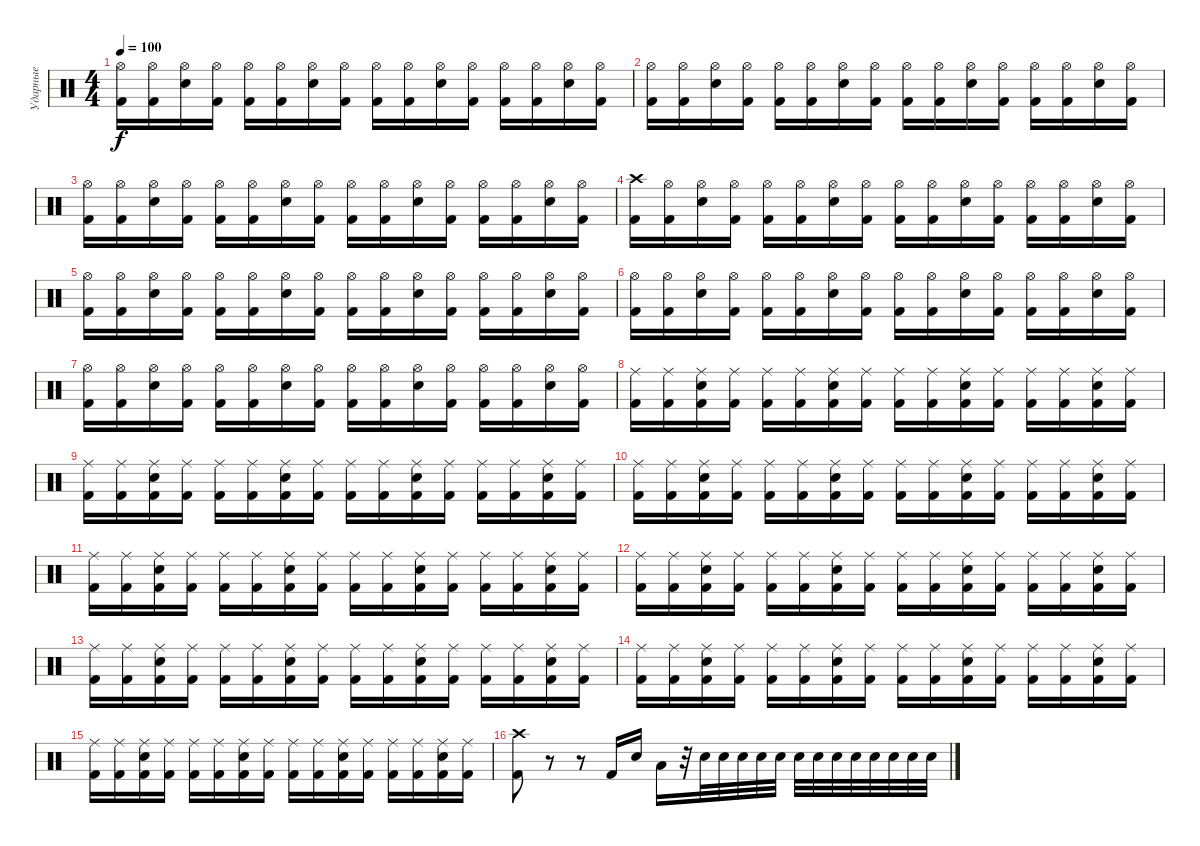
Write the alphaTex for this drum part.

\track ("Ударные" "Ударные") {instrument percussion}
\staff {score}
\articulation defaults
\ts (4 4)
\tempo 100
\clef neutral
\ks c
("Kick (hit) 2" "Hi-Hat (open)").16{dy f} ("Kick (hit) 2" "Hi-Hat (open)").16 ("Electric Snare (hit)" "Hi-Hat (open)").16 ("Kick (hit) 2" "Hi-Hat (open)").16 ("Kick (hit) 2" "Hi-Hat (open)").16 ("Kick (hit) 2" "Hi-Hat (open)").16 ("Electric Snare (hit)" "Hi-Hat (open)").16 ("Kick (hit) 2" "Hi-Hat (open)").16 ("Kick (hit) 2" "Hi-Hat (open)").16 ("Kick (hit) 2" "Hi-Hat (open)").16 ("Electric Snare (hit)" "Hi-Hat (open)").16 ("Kick (hit) 2" "Hi-Hat (open)").16 ("Kick (hit) 2" "Hi-Hat (open)").16 ("Kick (hit) 2" "Hi-Hat (open)").16 ("Electric Snare (hit)" "Hi-Hat (open)").16 ("Kick (hit) 2" "Hi-Hat (open)").16 |
("Kick (hit) 2" "Hi-Hat (open)").16 ("Kick (hit) 2" "Hi-Hat (open)").16 ("Electric Snare (hit)" "Hi-Hat (open)").16 ("Kick (hit) 2" "Hi-Hat (open)").16 ("Kick (hit) 2" "Hi-Hat (open)").16 ("Kick (hit) 2" "Hi-Hat (open)").16 ("Electric Snare (hit)" "Hi-Hat (open)").16 ("Kick (hit) 2" "Hi-Hat (open)").16 ("Kick (hit) 2" "Hi-Hat (open)").16 ("Kick (hit) 2" "Hi-Hat (open)").16 ("Electric Snare (hit)" "Hi-Hat (open)").16 ("Kick (hit) 2" "Hi-Hat (open)").16 ("Kick (hit) 2" "Hi-Hat (open)").16 ("Kick (hit) 2" "Hi-Hat (open)").16 ("Electric Snare (hit)" "Hi-Hat (open)").16 ("Kick (hit) 2" "Hi-Hat (open)").16 |
("Kick (hit) 2" "Hi-Hat (open)").16 ("Kick (hit) 2" "Hi-Hat (open)").16 ("Electric Snare (hit)" "Hi-Hat (open)").16 ("Kick (hit) 2" "Hi-Hat (open)").16 ("Kick (hit) 2" "Hi-Hat (open)").16 ("Kick (hit) 2" "Hi-Hat (open)").16 ("Electric Snare (hit)" "Hi-Hat (open)").16 ("Kick (hit) 2" "Hi-Hat (open)").16 ("Kick (hit) 2" "Hi-Hat (open)").16 ("Kick (hit) 2" "Hi-Hat (open)").16 ("Electric Snare (hit)" "Hi-Hat (open)").16 ("Kick (hit) 2" "Hi-Hat (open)").16 ("Kick (hit) 2" "Hi-Hat (open)").16 ("Kick (hit) 2" "Hi-Hat (open)").16 ("Electric Snare (hit)" "Hi-Hat (open)").16 ("Kick (hit) 2" "Hi-Hat (open)").16 |
("Kick (hit) 2" "Crash high (hit)").16 ("Kick (hit) 2" "Hi-Hat (open)").16 ("Electric Snare (hit)" "Hi-Hat (open)").16 ("Kick (hit) 2" "Hi-Hat (open)").16 ("Kick (hit) 2" "Hi-Hat (open)").16 ("Kick (hit) 2" "Hi-Hat (open)").16 ("Electric Snare (hit)" "Hi-Hat (open)").16 ("Kick (hit) 2" "Hi-Hat (open)").16 ("Kick (hit) 2" "Hi-Hat (open)").16 ("Kick (hit) 2" "Hi-Hat (open)").16 ("Electric Snare (hit)" "Hi-Hat (open)").16 ("Kick (hit) 2" "Hi-Hat (open)").16 ("Kick (hit) 2" "Hi-Hat (open)").16 ("Kick (hit) 2" "Hi-Hat (open)").16 ("Electric Snare (hit)" "Hi-Hat (open)").16 ("Kick (hit) 2" "Hi-Hat (open)").16 |
("Kick (hit) 2" "Hi-Hat (open)").16 ("Kick (hit) 2" "Hi-Hat (open)").16 ("Electric Snare (hit)" "Hi-Hat (open)").16 ("Kick (hit) 2" "Hi-Hat (open)").16 ("Kick (hit) 2" "Hi-Hat (open)").16 ("Kick (hit) 2" "Hi-Hat (open)").16 ("Electric Snare (hit)" "Hi-Hat (open)").16 ("Kick (hit) 2" "Hi-Hat (open)").16 ("Kick (hit) 2" "Hi-Hat (open)").16 ("Kick (hit) 2" "Hi-Hat (open)").16 ("Electric Snare (hit)" "Hi-Hat (open)").16 ("Kick (hit) 2" "Hi-Hat (open)").16 ("Kick (hit) 2" "Hi-Hat (open)").16 ("Kick (hit) 2" "Hi-Hat (open)").16 ("Electric Snare (hit)" "Hi-Hat (open)").16 ("Kick (hit) 2" "Hi-Hat (open)").16 |
("Kick (hit) 2" "Hi-Hat (open)").16 ("Kick (hit) 2" "Hi-Hat (open)").16 ("Electric Snare (hit)" "Hi-Hat (open)").16 ("Kick (hit) 2" "Hi-Hat (open)").16 ("Kick (hit) 2" "Hi-Hat (open)").16 ("Kick (hit) 2" "Hi-Hat (open)").16 ("Electric Snare (hit)" "Hi-Hat (open)").16 ("Kick (hit) 2" "Hi-Hat (open)").16 ("Kick (hit) 2" "Hi-Hat (open)").16 ("Kick (hit) 2" "Hi-Hat (open)").16 ("Electric Snare (hit)" "Hi-Hat (open)").16 ("Kick (hit) 2" "Hi-Hat (open)").16 ("Kick (hit) 2" "Hi-Hat (open)").16 ("Kick (hit) 2" "Hi-Hat (open)").16 ("Electric Snare (hit)" "Hi-Hat (open)").16 ("Kick (hit) 2" "Hi-Hat (open)").16 |
("Kick (hit) 2" "Hi-Hat (open)").16 ("Kick (hit) 2" "Hi-Hat (open)").16 ("Electric Snare (hit)" "Hi-Hat (open)").16 ("Kick (hit) 2" "Hi-Hat (open)").16 ("Kick (hit) 2" "Hi-Hat (open)").16 ("Kick (hit) 2" "Hi-Hat (open)").16 ("Electric Snare (hit)" "Hi-Hat (open)").16 ("Kick (hit) 2" "Hi-Hat (open)").16 ("Kick (hit) 2" "Hi-Hat (open)").16 ("Kick (hit) 2" "Hi-Hat (open)").16 ("Electric Snare (hit)" "Hi-Hat (open)").16 ("Kick (hit) 2" "Hi-Hat (open)").16 ("Kick (hit) 2" "Hi-Hat (open)").16 ("Kick (hit) 2" "Hi-Hat (open)").16 ("Electric Snare (hit)" "Hi-Hat (open)").16 ("Kick (hit) 2" "Hi-Hat (open)").16 |
("Kick (hit) 2" "Ride (middle)").16 ("Kick (hit) 2" "Ride (middle)").16 ("Kick (hit) 2" "Electric Snare (hit)" "Ride (middle)").16 ("Kick (hit) 2" "Ride (middle)").16 ("Kick (hit) 2" "Ride (middle)").16 ("Kick (hit) 2" "Ride (middle)").16 ("Kick (hit) 2" "Electric Snare (hit)" "Ride (middle)").16 ("Kick (hit) 2" "Ride (middle)").16 ("Kick (hit) 2" "Ride (middle)").16 ("Kick (hit) 2" "Ride (middle)").16 ("Kick (hit) 2" "Electric Snare (hit)" "Ride (middle)").16 ("Kick (hit) 2" "Ride (middle)").16 ("Kick (hit) 2" "Ride (middle)").16 ("Kick (hit) 2" "Ride (middle)").16 ("Kick (hit) 2" "Electric Snare (hit)" "Ride (middle)").16 ("Kick (hit) 2" "Ride (middle)").16 |
("Kick (hit) 2" "Ride (middle)").16 ("Kick (hit) 2" "Ride (middle)").16 ("Kick (hit) 2" "Electric Snare (hit)" "Ride (middle)").16 ("Kick (hit) 2" "Ride (middle)").16 ("Kick (hit) 2" "Ride (middle)").16 ("Kick (hit) 2" "Ride (middle)").16 ("Kick (hit) 2" "Electric Snare (hit)" "Ride (middle)").16 ("Kick (hit) 2" "Ride (middle)").16 ("Kick (hit) 2" "Ride (middle)").16 ("Kick (hit) 2" "Ride (middle)").16 ("Kick (hit) 2" "Electric Snare (hit)" "Ride (middle)").16 ("Kick (hit) 2" "Ride (middle)").16 ("Kick (hit) 2" "Ride (middle)").16 ("Kick (hit) 2" "Ride (middle)").16 ("Kick (hit) 2" "Electric Snare (hit)" "Ride (middle)").16 ("Kick (hit) 2" "Ride (middle)").16 |
("Kick (hit) 2" "Ride (middle)").16 ("Kick (hit) 2" "Ride (middle)").16 ("Kick (hit) 2" "Electric Snare (hit)" "Ride (middle)").16 ("Kick (hit) 2" "Ride (middle)").16 ("Kick (hit) 2" "Ride (middle)").16 ("Kick (hit) 2" "Ride (middle)").16 ("Kick (hit) 2" "Electric Snare (hit)" "Ride (middle)").16 ("Kick (hit) 2" "Ride (middle)").16 ("Kick (hit) 2" "Ride (middle)").16 ("Kick (hit) 2" "Ride (middle)").16 ("Kick (hit) 2" "Electric Snare (hit)" "Ride (middle)").16 ("Kick (hit) 2" "Ride (middle)").16 ("Kick (hit) 2" "Ride (middle)").16 ("Kick (hit) 2" "Ride (middle)").16 ("Kick (hit) 2" "Electric Snare (hit)" "Ride (middle)").16 ("Kick (hit) 2" "Ride (middle)").16 |
("Kick (hit) 2" "Ride (middle)").16 ("Kick (hit) 2" "Ride (middle)").16 ("Kick (hit) 2" "Electric Snare (hit)" "Ride (middle)").16 ("Kick (hit) 2" "Ride (middle)").16 ("Kick (hit) 2" "Ride (middle)").16 ("Kick (hit) 2" "Ride (middle)").16 ("Kick (hit) 2" "Electric Snare (hit)" "Ride (middle)").16 ("Kick (hit) 2" "Ride (middle)").16 ("Kick (hit) 2" "Ride (middle)").16 ("Kick (hit) 2" "Ride (middle)").16 ("Kick (hit) 2" "Electric Snare (hit)" "Ride (middle)").16 ("Kick (hit) 2" "Ride (middle)").16 ("Kick (hit) 2" "Ride (middle)").16 ("Kick (hit) 2" "Ride (middle)").16 ("Kick (hit) 2" "Electric Snare (hit)" "Ride (middle)").16 ("Kick (hit) 2" "Ride (middle)").16 |
("Kick (hit) 2" "Ride (middle)").16 ("Kick (hit) 2" "Ride (middle)").16 ("Kick (hit) 2" "Electric Snare (hit)" "Ride (middle)").16 ("Kick (hit) 2" "Ride (middle)").16 ("Kick (hit) 2" "Ride (middle)").16 ("Kick (hit) 2" "Ride (middle)").16 ("Kick (hit) 2" "Electric Snare (hit)" "Ride (middle)").16 ("Kick (hit) 2" "Ride (middle)").16 ("Kick (hit) 2" "Ride (middle)").16 ("Kick (hit) 2" "Ride (middle)").16 ("Kick (hit) 2" "Electric Snare (hit)" "Ride (middle)").16 ("Kick (hit) 2" "Ride (middle)").16 ("Kick (hit) 2" "Ride (middle)").16 ("Kick (hit) 2" "Ride (middle)").16 ("Kick (hit) 2" "Electric Snare (hit)" "Ride (middle)").16 ("Kick (hit) 2" "Ride (middle)").16 |
("Kick (hit) 2" "Ride (middle)").16 ("Kick (hit) 2" "Ride (middle)").16 ("Kick (hit) 2" "Electric Snare (hit)" "Ride (middle)").16 ("Kick (hit) 2" "Ride (middle)").16 ("Kick (hit) 2" "Ride (middle)").16 ("Kick (hit) 2" "Ride (middle)").16 ("Kick (hit) 2" "Electric Snare (hit)" "Ride (middle)").16 ("Kick (hit) 2" "Ride (middle)").16 ("Kick (hit) 2" "Ride (middle)").16 ("Kick (hit) 2" "Ride (middle)").16 ("Kick (hit) 2" "Electric Snare (hit)" "Ride (middle)").16 ("Kick (hit) 2" "Ride (middle)").16 ("Kick (hit) 2" "Ride (middle)").16 ("Kick (hit) 2" "Ride (middle)").16 ("Kick (hit) 2" "Electric Snare (hit)" "Ride (middle)").16 ("Kick (hit) 2" "Ride (middle)").16 |
("Kick (hit) 2" "Ride (middle)").16 ("Kick (hit) 2" "Ride (middle)").16 ("Kick (hit) 2" "Electric Snare (hit)" "Ride (middle)").16 ("Kick (hit) 2" "Ride (middle)").16 ("Kick (hit) 2" "Ride (middle)").16 ("Kick (hit) 2" "Ride (middle)").16 ("Kick (hit) 2" "Electric Snare (hit)" "Ride (middle)").16 ("Kick (hit) 2" "Ride (middle)").16 ("Kick (hit) 2" "Ride (middle)").16 ("Kick (hit) 2" "Ride (middle)").16 ("Kick (hit) 2" "Electric Snare (hit)" "Ride (middle)").16 ("Kick (hit) 2" "Ride (middle)").16 ("Kick (hit) 2" "Ride (middle)").16 ("Kick (hit) 2" "Ride (middle)").16 ("Kick (hit) 2" "Electric Snare (hit)" "Ride (middle)").16 ("Kick (hit) 2" "Ride (middle)").16 |
("Kick (hit) 2" "Ride (middle)").16 ("Kick (hit) 2" "Ride (middle)").16 ("Kick (hit) 2" "Electric Snare (hit)" "Ride (middle)").16 ("Kick (hit) 2" "Ride (middle)").16 ("Kick (hit) 2" "Ride (middle)").16 ("Kick (hit) 2" "Ride (middle)").16 ("Kick (hit) 2" "Electric Snare (hit)" "Ride (middle)").16 ("Kick (hit) 2" "Ride (middle)").16 ("Kick (hit) 2" "Ride (middle)").16 ("Kick (hit) 2" "Ride (middle)").16 ("Kick (hit) 2" "Electric Snare (hit)" "Ride (middle)").16 ("Kick (hit) 2" "Ride (middle)").16 ("Kick (hit) 2" "Ride (middle)").16 ("Kick (hit) 2" "Ride (middle)").16 ("Kick (hit) 2" "Electric Snare (hit)" "Ride (middle)").16 ("Kick (hit) 2" "Ride (middle)").16 |
("Kick (hit) 2" "Crash high (hit)").8 r.8 r.8 "Kick (hit) 2".16 "Electric Snare (hit)".16 "Low Tom (hit)".16 r.32 "Electric Snare (hit)".32 "Electric Snare (hit)".32 "Electric Snare (hit)".32 "Electric Snare (hit)".32 "Electric Snare (hit)".32 "Electric Snare (hit)".32 "Electric Snare (hit)".32 "Electric Snare (hit)".32 "Electric Snare (hit)".32 "Electric Snare (hit)".32 "Electric Snare (hit)".32 "Electric Snare (hit)".32 "Electric Snare (hit)".32
